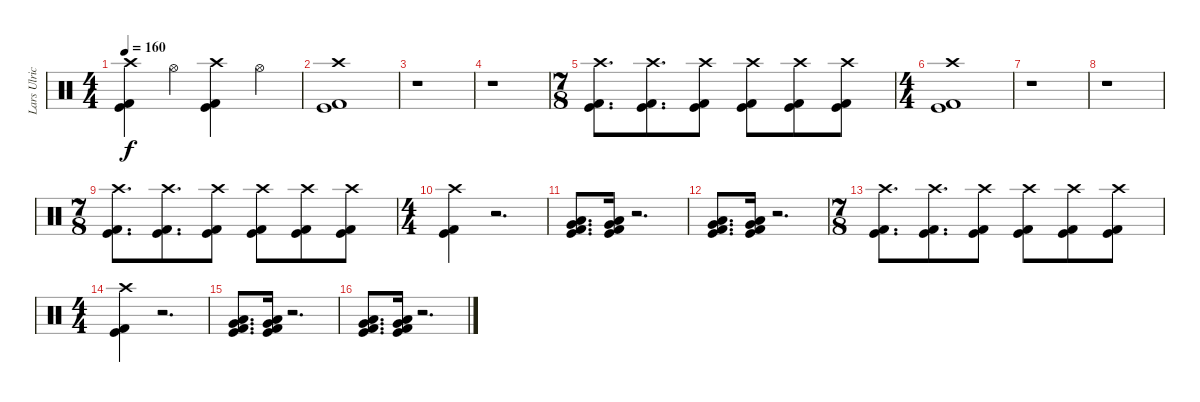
\track ("Lars Ulrich" "Lars Ulric") {instrument percussion}
\staff {score}
\articulation defaults
\ts (4 4)
\tempo 160
\clef neutral
\ks c
("Crash high (hit)" "Kick (hit) 2" "Kick (hit)").4{dy f} "Hi-Hat (open)".4 ("Crash high (hit)" "Kick (hit) 2" "Kick (hit)").4 "Hi-Hat (open)".4 |
("Crash high (hit)" "Kick (hit) 2" "Kick (hit)").1 |
r.1 |
r.1 |
\ts (7 8)
("Crash high (hit)" "Kick (hit) 2" "Kick (hit)").8{d} ("Crash high (hit)" "Kick (hit) 2" "Kick (hit)").8{d} ("Crash high (hit)" "Kick (hit) 2" "Kick (hit)").8 ("Crash high (hit)" "Kick (hit) 2" "Kick (hit)").8 ("Crash high (hit)" "Kick (hit) 2" "Kick (hit)").8 ("Crash high (hit)" "Kick (hit) 2" "Kick (hit)").8 |
\ts (4 4)
("Crash high (hit)" "Kick (hit) 2" "Kick (hit)").1 |
r.1 |
r.1 |
\ts (7 8)
("Crash high (hit)" "Kick (hit) 2" "Kick (hit)").8{d} ("Crash high (hit)" "Kick (hit) 2" "Kick (hit)").8{d} ("Crash high (hit)" "Kick (hit) 2" "Kick (hit)").8 ("Crash high (hit)" "Kick (hit) 2" "Kick (hit)").8 ("Crash high (hit)" "Kick (hit) 2" "Kick (hit)").8 ("Crash high (hit)" "Kick (hit) 2" "Kick (hit)").8 |
\ts (4 4)
("Crash high (hit)" "Kick (hit) 2" "Kick (hit)").4 r.2{d} |
("Very Low Tom (hit)" "Low Tom (hit)" "Kick (hit) 2" "Kick (hit)").8{d} ("Very Low Tom (hit)" "Low Tom (hit)" "Kick (hit) 2" "Kick (hit)").16 r.2{d} |
("Very Low Tom (hit)" "Low Tom (hit)" "Kick (hit) 2" "Kick (hit)").8{d} ("Very Low Tom (hit)" "Low Tom (hit)" "Kick (hit) 2" "Kick (hit)").16 r.2{d} |
\ts (7 8)
("Crash high (hit)" "Kick (hit) 2" "Kick (hit)").8{d} ("Crash high (hit)" "Kick (hit) 2" "Kick (hit)").8{d} ("Crash high (hit)" "Kick (hit) 2" "Kick (hit)").8 ("Crash high (hit)" "Kick (hit) 2" "Kick (hit)").8 ("Crash high (hit)" "Kick (hit) 2" "Kick (hit)").8 ("Crash high (hit)" "Kick (hit) 2" "Kick (hit)").8 |
\ts (4 4)
("Crash high (hit)" "Kick (hit) 2" "Kick (hit)").4 r.2{d} |
("Very Low Tom (hit)" "Low Tom (hit)" "Kick (hit) 2" "Kick (hit)").8{d} ("Very Low Tom (hit)" "Low Tom (hit)" "Kick (hit) 2" "Kick (hit)").16 r.2{d} |
("Very Low Tom (hit)" "Low Tom (hit)" "Kick (hit) 2" "Kick (hit)").8{d} ("Very Low Tom (hit)" "Low Tom (hit)" "Kick (hit) 2" "Kick (hit)").16 r.2{d}
